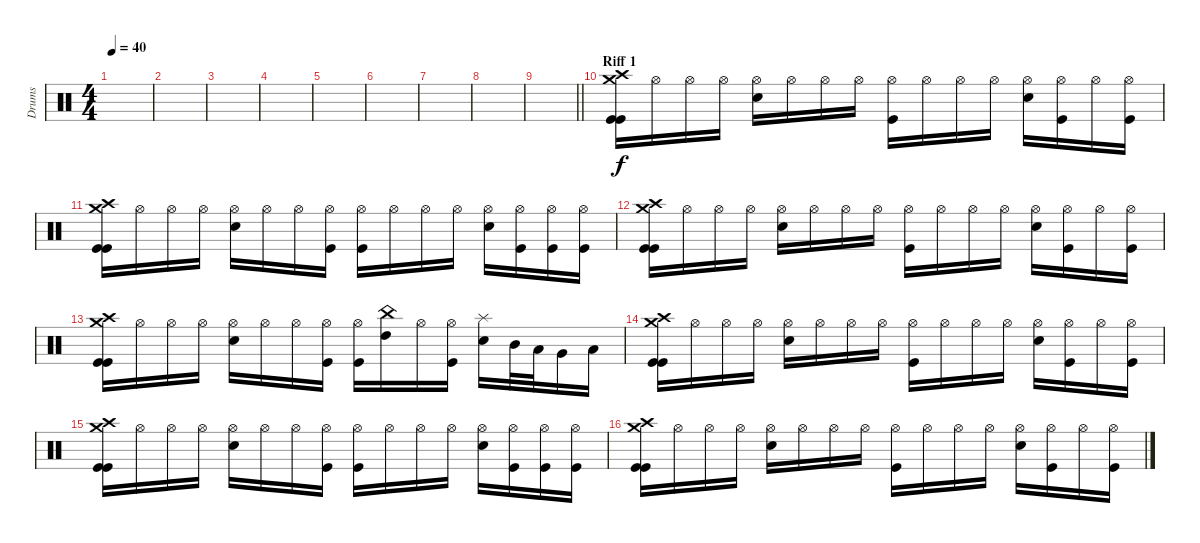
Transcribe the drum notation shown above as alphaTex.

\track ("Drums" "Drums") {instrument percussion}
\staff {score}
\articulation defaults
\ts (4 4)
\tempo 40
\clef neutral
\ks c
|
|
|
|
|
|
|
|
\barLineRight lightlight
|
\section ("" "Riff 1")
("Crash medium (hit)" "Crash high (hit)" "Kick (hit)" "Kick (hit)").16 "Hi-Hat (open)".16 "Hi-Hat (open)".16 "Hi-Hat (open)".16 ("Hi-Hat (open)" "Snare (hit) 2").16 "Hi-Hat (open)".16 "Hi-Hat (open)".16 "Hi-Hat (open)".16 ("Hi-Hat (open)" "Kick (hit)").16 "Hi-Hat (open)".16 "Hi-Hat (open)".16 "Hi-Hat (open)".16 ("Hi-Hat (open)" "Snare (hit) 2").16 ("Hi-Hat (open)" "Kick (hit)").16 "Hi-Hat (open)".16 ("Hi-Hat (open)" "Kick (hit)").16 |
("Crash medium (hit)" "Crash high (hit)" "Kick (hit)" "Kick (hit)").16 "Hi-Hat (open)".16 "Hi-Hat (open)".16 "Hi-Hat (open)".16 ("Hi-Hat (open)" "Snare (hit) 2").16 "Hi-Hat (open)".16 "Hi-Hat (open)".16 ("Hi-Hat (open)" "Kick (hit)").16 ("Hi-Hat (open)" "Kick (hit)").16 "Hi-Hat (open)".16 "Hi-Hat (open)".16 "Hi-Hat (open)".16 ("Hi-Hat (open)" "Snare (hit) 2").16 ("Hi-Hat (open)" "Kick (hit)").16 ("Hi-Hat (open)" "Kick (hit)").16 ("Hi-Hat (open)" "Kick (hit)").16 |
("Crash medium (hit)" "Crash high (hit)" "Kick (hit)" "Kick (hit)").16 "Hi-Hat (open)".16 "Hi-Hat (open)".16 "Hi-Hat (open)".16 ("Hi-Hat (open)" "Snare (hit) 2").16 "Hi-Hat (open)".16 "Hi-Hat (open)".16 "Hi-Hat (open)".16 ("Hi-Hat (open)" "Kick (hit)").16 "Hi-Hat (open)".16 "Hi-Hat (open)".16 "Hi-Hat (open)".16 ("Hi-Hat (open)" "Snare (hit) 2").16 ("Hi-Hat (open)" "Kick (hit)").16 "Hi-Hat (open)".16 ("Hi-Hat (open)" "Kick (hit)").16 |
("Crash medium (hit)" "Crash high (hit)" "Kick (hit)" "Kick (hit)").16 "Hi-Hat (open)".16 "Hi-Hat (open)".16 "Hi-Hat (open)".16 ("Hi-Hat (open)" "Snare (hit) 2").16 "Hi-Hat (open)".16 "Hi-Hat (open)".16 ("Hi-Hat (open)" "Kick (hit)").16 ("Hi-Hat (open)" "Kick (hit)").16 ("High Tom (hit)" "China (hit)").16 "Hi-Hat (open)".16 ("Hi-Hat (open)" "Kick (hit)").16 ("Snare (hit) 2" "Splash (hit)").16 "Mid Tom (hit)".32 "Low Tom (hit)".32 "Very Low Tom (hit)".16 "Low Floor Tom (hit)".16 |
("Crash medium (hit)" "Crash high (hit)" "Kick (hit)" "Kick (hit)").16 "Hi-Hat (open)".16 "Hi-Hat (open)".16 "Hi-Hat (open)".16 ("Hi-Hat (open)" "Snare (hit) 2").16 "Hi-Hat (open)".16 "Hi-Hat (open)".16 "Hi-Hat (open)".16 ("Hi-Hat (open)" "Kick (hit)").16 "Hi-Hat (open)".16 "Hi-Hat (open)".16 "Hi-Hat (open)".16 ("Hi-Hat (open)" "Snare (hit) 2").16 ("Hi-Hat (open)" "Kick (hit)").16 "Hi-Hat (open)".16 ("Hi-Hat (open)" "Kick (hit)").16 |
("Crash medium (hit)" "Crash high (hit)" "Kick (hit)" "Kick (hit)").16 "Hi-Hat (open)".16 "Hi-Hat (open)".16 "Hi-Hat (open)".16 ("Hi-Hat (open)" "Snare (hit) 2").16 "Hi-Hat (open)".16 "Hi-Hat (open)".16 ("Hi-Hat (open)" "Kick (hit)").16 ("Hi-Hat (open)" "Kick (hit)").16 "Hi-Hat (open)".16 "Hi-Hat (open)".16 "Hi-Hat (open)".16 ("Hi-Hat (open)" "Snare (hit) 2").16 ("Hi-Hat (open)" "Kick (hit)").16 ("Hi-Hat (open)" "Kick (hit)").16 ("Hi-Hat (open)" "Kick (hit)").16 |
("Crash medium (hit)" "Crash high (hit)" "Kick (hit)" "Kick (hit)").16 "Hi-Hat (open)".16 "Hi-Hat (open)".16 "Hi-Hat (open)".16 ("Hi-Hat (open)" "Snare (hit) 2").16 "Hi-Hat (open)".16 "Hi-Hat (open)".16 "Hi-Hat (open)".16 ("Hi-Hat (open)" "Kick (hit)").16 "Hi-Hat (open)".16 "Hi-Hat (open)".16 "Hi-Hat (open)".16 ("Hi-Hat (open)" "Snare (hit) 2").16 ("Hi-Hat (open)" "Kick (hit)").16 "Hi-Hat (open)".16 ("Hi-Hat (open)" "Kick (hit)").16
